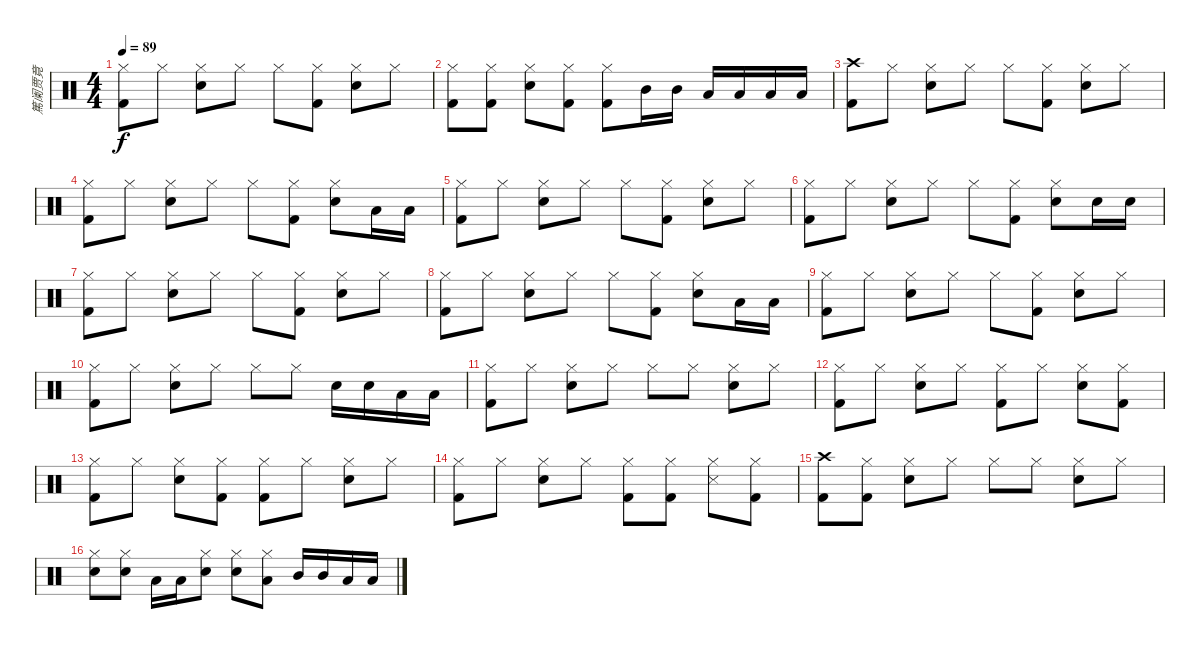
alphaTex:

\track ("篤阑贾竟" "篤阑贾竟") {instrument percussion}
\staff {score}
\articulation defaults
\ts (4 4)
\tempo 89
\clef neutral
\ks c
("Hi-Hat (closed)" "Kick (hit) 2").8{dy f} "Hi-Hat (closed)".8 ("Hi-Hat (closed)" "Snare (hit) 2").8 "Hi-Hat (closed)".8 "Hi-Hat (closed)".8 ("Hi-Hat (closed)" "Kick (hit) 2").8 ("Hi-Hat (closed)" "Snare (hit) 2").8 "Hi-Hat (closed)".8 |
("Hi-Hat (closed)" "Kick (hit) 2").8 ("Hi-Hat (closed)" "Kick (hit) 2").8 ("Hi-Hat (closed)" "Snare (hit) 2").8 ("Hi-Hat (closed)" "Kick (hit) 2").8 ("Hi-Hat (closed)" "Kick (hit) 2").8 "Mid Tom (hit)".16 "Mid Tom (hit)".16 "Low Tom (hit)".16 "Low Tom (hit)".16 "Low Floor Tom (hit)".16 "Low Floor Tom (hit)".16 |
("Crash high (hit)" "Kick (hit) 2").8 "Hi-Hat (closed)".8 ("Hi-Hat (closed)" "Snare (hit) 2").8 "Hi-Hat (closed)".8 "Hi-Hat (closed)".8 ("Hi-Hat (closed)" "Kick (hit) 2").8 ("Hi-Hat (closed)" "Snare (hit) 2").8 "Hi-Hat (closed)".8 |
("Hi-Hat (closed)" "Kick (hit) 2").8 "Hi-Hat (closed)".8 ("Hi-Hat (closed)" "Snare (hit) 2").8 "Hi-Hat (closed)".8 "Hi-Hat (closed)".8 ("Hi-Hat (closed)" "Kick (hit) 2").8 ("Hi-Hat (closed)" "Snare (hit) 2").8 "Low Tom (hit)".16 "Low Tom (hit)".16 |
("Hi-Hat (closed)" "Kick (hit) 2").8 "Hi-Hat (closed)".8 ("Hi-Hat (closed)" "Snare (hit) 2").8 "Hi-Hat (closed)".8 "Hi-Hat (closed)".8 ("Hi-Hat (closed)" "Kick (hit) 2").8 ("Hi-Hat (closed)" "Snare (hit) 2").8 "Hi-Hat (closed)".8 |
("Hi-Hat (closed)" "Kick (hit) 2").8 "Hi-Hat (closed)".8 ("Hi-Hat (closed)" "Snare (hit) 2").8 "Hi-Hat (closed)".8 "Hi-Hat (closed)".8 ("Hi-Hat (closed)" "Kick (hit) 2").8 ("Hi-Hat (closed)" "Snare (hit) 2").8 "Snare (hit) 2".16 "Snare (hit) 2".16 |
("Hi-Hat (closed)" "Kick (hit) 2").8 "Hi-Hat (closed)".8 ("Hi-Hat (closed)" "Snare (hit) 2").8 "Hi-Hat (closed)".8 "Hi-Hat (closed)".8 ("Hi-Hat (closed)" "Kick (hit) 2").8 ("Hi-Hat (closed)" "Snare (hit) 2").8 "Hi-Hat (closed)".8 |
("Hi-Hat (closed)" "Kick (hit) 2").8 "Hi-Hat (closed)".8 ("Hi-Hat (closed)" "Snare (hit) 2").8 "Hi-Hat (closed)".8 "Hi-Hat (closed)".8 ("Hi-Hat (closed)" "Kick (hit) 2").8 ("Hi-Hat (closed)" "Snare (hit) 2").8 "Low Tom (hit)".16 "Low Tom (hit)".16 |
("Hi-Hat (closed)" "Kick (hit) 2").8 "Hi-Hat (closed)".8 ("Hi-Hat (closed)" "Snare (hit) 2").8 "Hi-Hat (closed)".8 "Hi-Hat (closed)".8 ("Hi-Hat (closed)" "Kick (hit) 2").8 ("Hi-Hat (closed)" "Snare (hit) 2").8 "Hi-Hat (closed)".8 |
("Hi-Hat (closed)" "Kick (hit) 2").8 "Hi-Hat (closed)".8 ("Hi-Hat (closed)" "Snare (hit) 2").8 "Hi-Hat (closed)".8 "Hi-Hat (closed)".8 "Hi-Hat (closed)".8 "Snare (hit) 2".16 "Snare (hit) 2".16 "Low Tom (hit)".16 "Low Tom (hit)".16 |
("Hi-Hat (closed)" "Kick (hit) 2").8 "Hi-Hat (closed)".8 ("Hi-Hat (closed)" "Snare (hit) 2").8 "Hi-Hat (closed)".8 "Hi-Hat (closed)".8 "Hi-Hat (closed)".8 ("Hi-Hat (closed)" "Snare (hit) 2").8 "Hi-Hat (closed)".8 |
("Hi-Hat (closed)" "Kick (hit) 2").8 "Hi-Hat (closed)".8 ("Hi-Hat (closed)" "Snare (hit) 2").8 "Hi-Hat (closed)".8 ("Hi-Hat (closed)" "Kick (hit) 2").8 "Hi-Hat (closed)".8 ("Hi-Hat (closed)" "Snare (hit) 2").8 ("Hi-Hat (closed)" "Kick (hit) 2").8 |
("Hi-Hat (closed)" "Kick (hit) 2").8 "Hi-Hat (closed)".8 ("Hi-Hat (closed)" "Snare (hit) 2").8 ("Hi-Hat (closed)" "Kick (hit) 2").8 ("Hi-Hat (closed)" "Kick (hit) 2").8 "Hi-Hat (closed)".8 ("Hi-Hat (closed)" "Snare (hit) 2").8 "Hi-Hat (closed)".8 |
("Hi-Hat (closed)" "Kick (hit) 2").8 "Hi-Hat (closed)".8 ("Hi-Hat (closed)" "Snare (hit) 2").8 "Hi-Hat (closed)".8 ("Hi-Hat (closed)" "Kick (hit) 2").8 ("Hi-Hat (closed)" "Kick (hit) 2").8 ("Hi-Hat (closed)" "Snare (side stick) 3").8 ("Hi-Hat (closed)" "Kick (hit) 2").8 |
("Crash high (hit)" "Kick (hit) 2").8 ("Hi-Hat (closed)" "Kick (hit) 2").8 ("Hi-Hat (closed)" "Snare (hit) 2").8 "Hi-Hat (closed)".8 "Hi-Hat (closed)".8 "Hi-Hat (closed)".8 ("Hi-Hat (closed)" "Snare (hit) 2").8 "Hi-Hat (closed)".8 |
("Hi-Hat (closed)" "Snare (hit) 2").8 ("Hi-Hat (closed)" "Snare (hit) 2").8 "Low Tom (hit)".16 "Low Tom (hit)".16 ("Hi-Hat (closed)" "Snare (hit) 2").8 ("Hi-Hat (closed)" "Snare (hit) 2").8 ("Hi-Hat (closed)" "Low Tom (hit)").8 "Mid Tom (hit)".16 "Mid Tom (hit)".16 "Low Tom (hit)".16 "Low Tom (hit)".16
